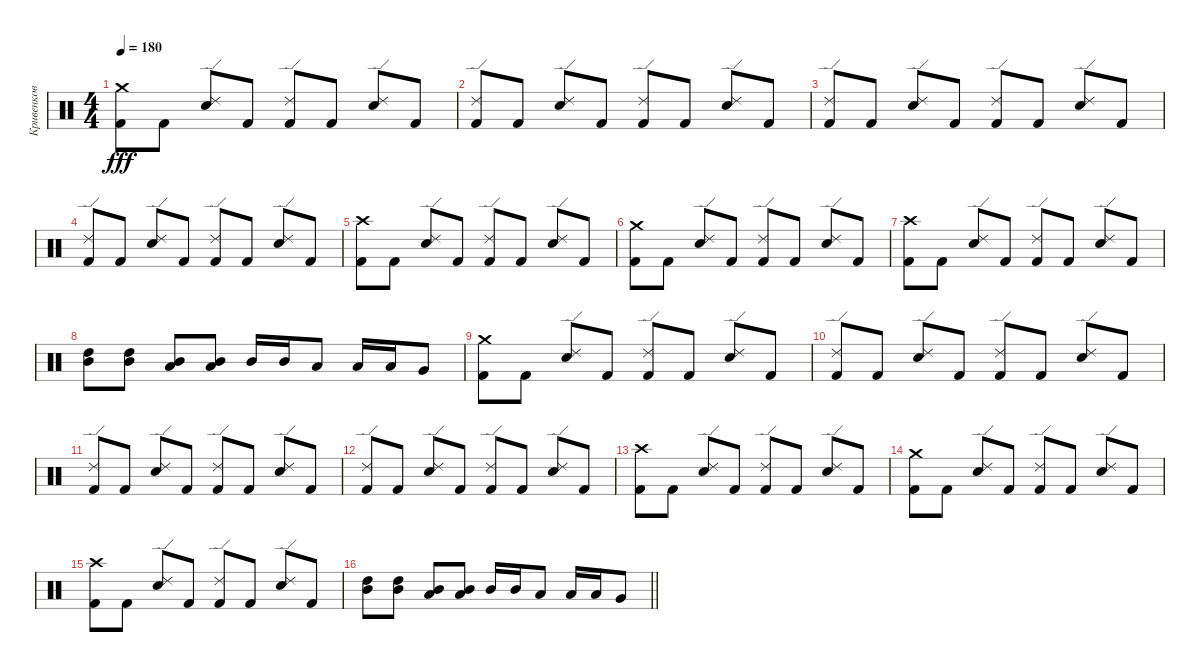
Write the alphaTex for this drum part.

\track ("Кривенков" "Кривенков") {instrument percussion}
\staff {score}
\articulation defaults
\ts (4 4)
\tempo 180
\clef neutral
\ks c
("Crash medium (hit)" "Kick (hit) 2").8{dy fff} "Kick (hit) 2".8 ("Ride (edge) 2" "Snare (hit) 2").8 "Kick (hit) 2".8 ("Ride (edge) 2" "Kick (hit) 2").8 "Kick (hit) 2".8 ("Ride (edge) 2" "Snare (hit) 2").8 "Kick (hit) 2".8 |
("Kick (hit) 2" "Ride (edge) 2").8 "Kick (hit) 2".8 ("Ride (edge) 2" "Snare (hit) 2").8 "Kick (hit) 2".8 ("Kick (hit) 2" "Ride (edge) 2").8 "Kick (hit) 2".8 ("Ride (edge) 2" "Snare (hit) 2").8 "Kick (hit) 2".8 |
("Ride (edge) 2" "Kick (hit) 2").8 "Kick (hit) 2".8 ("Snare (hit) 2" "Ride (edge) 2").8 "Kick (hit) 2".8 ("Kick (hit) 2" "Ride (edge) 2").8 "Kick (hit) 2".8 ("Snare (hit) 2" "Ride (edge) 2").8 "Kick (hit) 2".8 |
("Kick (hit) 2" "Ride (edge) 2").8 "Kick (hit) 2".8 ("Ride (edge) 2" "Snare (hit) 2").8 "Kick (hit) 2".8 ("Kick (hit) 2" "Ride (edge) 2").8 "Kick (hit) 2".8 ("Ride (edge) 2" "Snare (hit) 2").8 "Kick (hit) 2".8 |
("Kick (hit) 2" "Crash high (hit)").8 "Kick (hit) 2".8 ("Snare (hit) 2" "Ride (edge) 2").8 "Kick (hit) 2".8 ("Ride (edge) 2" "Kick (hit) 2").8 "Kick (hit) 2".8 ("Ride (edge) 2" "Snare (hit) 2").8 "Kick (hit) 2".8 |
("Crash medium (hit)" "Kick (hit) 2").8 "Kick (hit) 2".8 ("Ride (edge) 2" "Snare (hit) 2").8 "Kick (hit) 2".8 ("Kick (hit) 2" "Ride (edge) 2").8 "Kick (hit) 2".8 ("Snare (hit) 2" "Ride (edge) 2").8 "Kick (hit) 2".8 |
("Crash high (hit)" "Kick (hit) 2").8 "Kick (hit) 2".8 ("Ride (edge) 2" "Snare (hit) 2").8 "Kick (hit) 2".8 ("Ride (edge) 2" "Kick (hit) 2").8 "Kick (hit) 2".8 ("Snare (hit) 2" "Ride (edge) 2").8 "Kick (hit) 2".8 |
("Mid Tom (hit)" "High Tom (hit)").8 ("High Tom (hit)" "Mid Tom (hit)").8 ("Mid Tom (hit)" "Low Tom (hit)").8 ("Low Tom (hit)" "Mid Tom (hit)").8 "Mid Tom (hit)".16 "Mid Tom (hit)".16 "Low Tom (hit)".8 "Low Tom (hit)".16 "Low Tom (hit)".16 "Very Low Tom (hit)".8 |
("Kick (hit) 2" "Crash medium (hit)").8 "Kick (hit) 2".8 ("Snare (hit) 2" "Ride (edge) 2").8 "Kick (hit) 2".8 ("Ride (edge) 2" "Kick (hit) 2").8 "Kick (hit) 2".8 ("Snare (hit) 2" "Ride (edge) 2").8 "Kick (hit) 2".8 |
("Kick (hit) 2" "Ride (edge) 2").8 "Kick (hit) 2".8 ("Ride (edge) 2" "Snare (hit) 2").8 "Kick (hit) 2".8 ("Kick (hit) 2" "Ride (edge) 2").8 "Kick (hit) 2".8 ("Snare (hit) 2" "Ride (edge) 2").8 "Kick (hit) 2".8 |
("Kick (hit) 2" "Ride (edge) 2").8 "Kick (hit) 2".8 ("Ride (edge) 2" "Snare (hit) 2").8 "Kick (hit) 2".8 ("Ride (edge) 2" "Kick (hit) 2").8 "Kick (hit) 2".8 ("Ride (edge) 2" "Snare (hit) 2").8 "Kick (hit) 2".8 |
("Ride (edge) 2" "Kick (hit) 2").8 "Kick (hit) 2".8 ("Ride (edge) 2" "Snare (hit) 2").8 "Kick (hit) 2".8 ("Kick (hit) 2" "Ride (edge) 2").8 "Kick (hit) 2".8 ("Snare (hit) 2" "Ride (edge) 2").8 "Kick (hit) 2".8 |
("Kick (hit) 2" "Crash high (hit)").8 "Kick (hit) 2".8 ("Ride (edge) 2" "Snare (hit) 2").8 "Kick (hit) 2".8 ("Ride (edge) 2" "Kick (hit) 2").8 "Kick (hit) 2".8 ("Snare (hit) 2" "Ride (edge) 2").8 "Kick (hit) 2".8 |
("Crash medium (hit)" "Kick (hit) 2").8 "Kick (hit) 2".8 ("Ride (edge) 2" "Snare (hit) 2").8 "Kick (hit) 2".8 ("Kick (hit) 2" "Ride (edge) 2").8 "Kick (hit) 2".8 ("Ride (edge) 2" "Snare (hit) 2").8 "Kick (hit) 2".8 |
("Crash high (hit)" "Kick (hit) 2").8 "Kick (hit) 2".8 ("Ride (edge) 2" "Snare (hit) 2").8 "Kick (hit) 2".8 ("Kick (hit) 2" "Ride (edge) 2").8 "Kick (hit) 2".8 ("Ride (edge) 2" "Snare (hit) 2").8 "Kick (hit) 2".8 |
\barLineRight lightlight
("High Tom (hit)" "Mid Tom (hit)").8 ("High Tom (hit)" "Mid Tom (hit)").8 ("Low Tom (hit)" "Mid Tom (hit)").8 ("Low Tom (hit)" "Mid Tom (hit)").8 "Mid Tom (hit)".16 "Mid Tom (hit)".16 "Low Tom (hit)".8 "Low Tom (hit)".16 "Low Tom (hit)".16 "Very Low Tom (hit)".8
